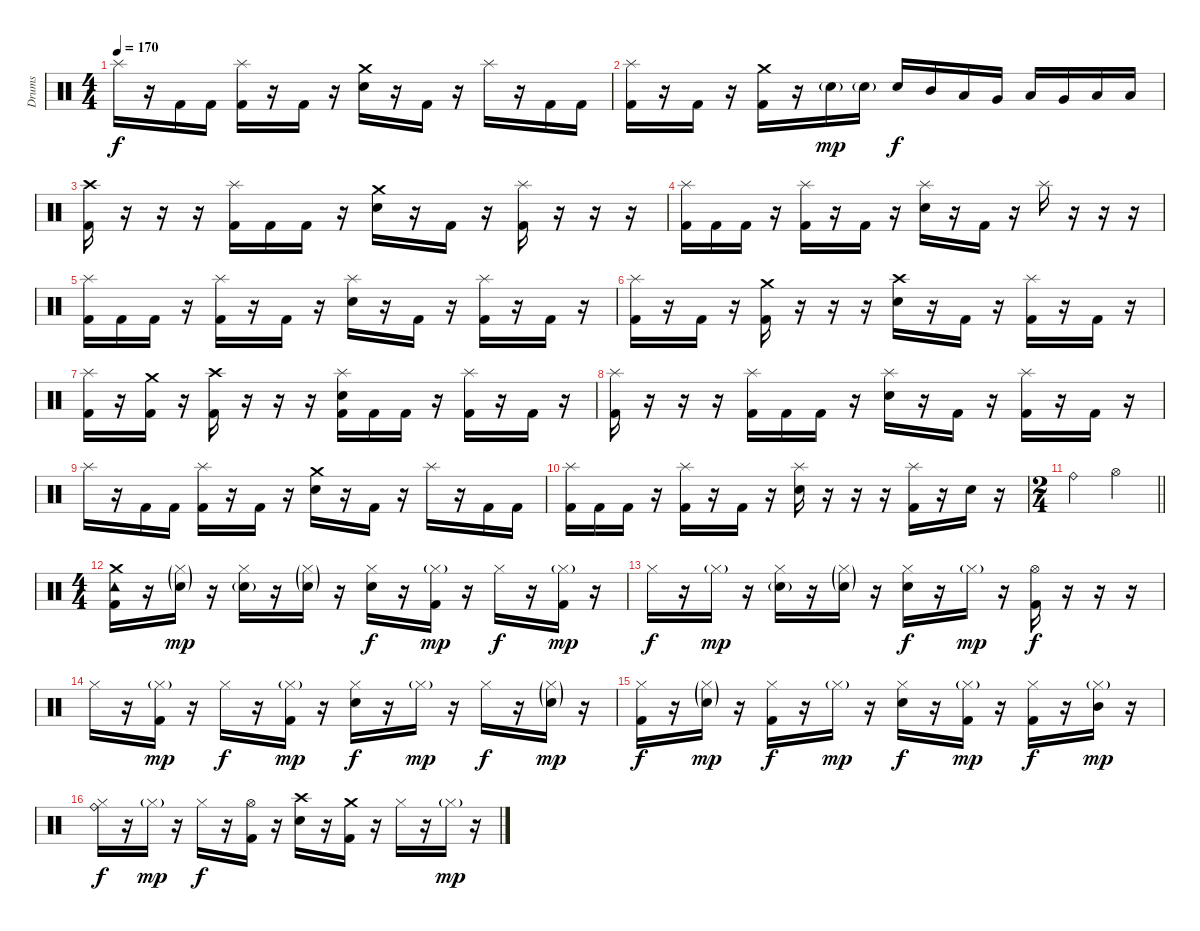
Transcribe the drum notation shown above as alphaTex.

\track ("Drums" "Drums") {instrument percussion}
\staff {score}
\articulation defaults
\ts (4 4)
\tempo 170
\clef neutral
\ks c "Splash (hit)".16{dy f}
r.16 "Kick (hit) 2".16 "Kick (hit) 2".16 ("Splash (hit)" "Kick (hit) 2").16 r.16 "Kick (hit) 2".16 r.16 ("Crash medium (hit)" "Electric Snare (hit)").16 r.16 "Kick (hit) 2".16 r.16 "Splash (hit)".16 r.16 "Kick (hit) 2".16 "Kick (hit) 2".16 |
("Splash (hit)" "Kick (hit) 2").16 r.16 "Kick (hit) 2".16 r.16 ("Crash medium (hit)" "Kick (hit) 2").16 r.16 "Electric Snare (hit)"{g}.16{dy mp} "Electric Snare (hit)"{g}.16 "Electric Snare (hit)".16{dy f} "Mid Tom (hit)".16 "Low Tom (hit)".16 "Very Low Tom (hit)".16 "Low Floor Tom (hit)".16 "Very Low Tom (hit)".16 "Low Floor Tom (hit)".16 "Low Floor Tom (hit)".16 |
("Crash high (hit)" "Kick (hit) 2").16 r.16 r.16 r.16 ("Splash (hit)" "Kick (hit) 2").16 "Kick (hit) 2".16 "Kick (hit) 2".16 r.16 ("Crash medium (hit)" "Electric Snare (hit)").16 r.16 "Kick (hit) 2".16 r.16 ("Splash (hit)" "Kick (hit) 2").16 r.16 r.16 r.16 |
("Splash (hit)" "Kick (hit) 2").16 "Kick (hit) 2".16 "Kick (hit) 2".16 r.16 ("Splash (hit)" "Kick (hit) 2").16 r.16 "Kick (hit) 2".16 r.16 ("Splash (hit)" "Electric Snare (hit)").16 r.16 "Kick (hit) 2".16 r.16 "Splash (hit)".16 r.16 r.16 r.16 |
("Splash (hit)" "Kick (hit) 2").16 "Kick (hit) 2".16 "Kick (hit) 2".16 r.16 ("Splash (hit)" "Kick (hit) 2").16 r.16 "Kick (hit) 2".16 r.16 ("Splash (hit)" "Electric Snare (hit)").16 r.16 "Kick (hit) 2".16 r.16 ("Splash (hit)" "Kick (hit) 2").16 r.16 "Kick (hit) 2".16 r.16 |
("Splash (hit)" "Kick (hit) 2").16 r.16 "Kick (hit) 2".16 r.16 ("Crash medium (hit)" "Kick (hit) 2").16 r.16 r.16 r.16 ("Crash high (hit)" "Electric Snare (hit)").16 r.16 "Kick (hit) 2".16 r.16 ("Splash (hit)" "Kick (hit) 2").16 r.16 "Kick (hit) 2".16 r.16 |
("Splash (hit)" "Kick (hit) 2").16 r.16 ("Crash medium (hit)" "Kick (hit) 2").16 r.16 ("Crash high (hit)" "Kick (hit) 2").16 r.16 r.16 r.16 ("Splash (hit)" "Electric Snare (hit)" "Kick (hit) 2").16 "Kick (hit) 2".16 "Kick (hit) 2".16 r.16 ("Splash (hit)" "Kick (hit) 2").16 r.16 "Kick (hit) 2".16 r.16 |
("Splash (hit)" "Kick (hit) 2").16 r.16 r.16 r.16 ("Splash (hit)" "Kick (hit) 2").16 "Kick (hit) 2".16 "Kick (hit) 2".16 r.16 ("Splash (hit)" "Electric Snare (hit)").16 r.16 "Kick (hit) 2".16 r.16 ("Splash (hit)" "Kick (hit) 2").16 r.16 "Kick (hit) 2".16 r.16 |
"Splash (hit)".16 r.16 "Kick (hit) 2".16 "Kick (hit) 2".16 ("Splash (hit)" "Kick (hit) 2").16 r.16 "Kick (hit) 2".16 r.16 ("Crash medium (hit)" "Electric Snare (hit)").16 r.16 "Kick (hit) 2".16 r.16 "Splash (hit)".16 r.16 "Kick (hit) 2".16 "Kick (hit) 2".16 |
("Splash (hit)" "Kick (hit) 2").16 "Kick (hit) 2".16 "Kick (hit) 2".16 r.16 ("Splash (hit)" "Kick (hit) 2").16 r.16 "Kick (hit) 2".16 r.16 ("Splash (hit)" "Electric Snare (hit)").16 r.16 r.16 r.16 ("Splash (hit)" "Kick (hit) 2").16 r.16 "Electric Snare (hit)".16 r.16 |
\ts (2 4)
\barLineRight lightlight "Ride (bell)".4 "Hi-Hat (open)".4
|
\ts (4 4)
\section ("" "")
("Crash medium (hit)" "Tambourine (hit)" "Kick (hit) 2").16 r.16 ("Hi-Hat (closed)"{g} "Electric Snare (hit)"{g}).16{dy mp} r.16 ("Hi-Hat (closed)" "Electric Snare (hit)"{g}).16 r.16 ("Hi-Hat (closed)"{g} "Electric Snare (hit)"{g}).16 r.16 ("Hi-Hat (closed)" "Electric Snare (hit)").16{dy f} r.16 ("Hi-Hat (closed)"{g} "Kick (hit) 2").16{dy mp} r.16 "Hi-Hat (closed)".16{dy f} r.16 ("Hi-Hat (closed)"{g} "Kick (hit) 2").16{dy mp} r.16 |
"Hi-Hat (closed)".16{dy f} r.16 "Hi-Hat (closed)"{g}.16{dy mp} r.16 ("Hi-Hat (closed)" "Electric Snare (hit)"{g}).16 r.16 ("Hi-Hat (closed)"{g} "Electric Snare (hit)"{g}).16 r.16 ("Hi-Hat (closed)" "Electric Snare (hit)").16{dy f} r.16 "Hi-Hat (closed)"{g}.16{dy mp} r.16 ("Hi-Hat (open)" "Kick (hit) 2").16{dy f} r.16 r.16 r.16 |
"Hi-Hat (closed)".16 r.16 ("Hi-Hat (closed)"{g} "Kick (hit) 2").16{dy mp} r.16 "Hi-Hat (closed)".16{dy f} r.16 ("Hi-Hat (closed)"{g} "Kick (hit) 2").16{dy mp} r.16 ("Hi-Hat (closed)" "Electric Snare (hit)").16{dy f} r.16 "Hi-Hat (closed)"{g}.16{dy mp} r.16 "Hi-Hat (closed)".16{dy f} r.16 ("Hi-Hat (closed)"{g} "Electric Snare (hit)"{g}).16{dy mp} r.16 |
("Hi-Hat (closed)" "Kick (hit) 2").16{dy f} r.16 ("Hi-Hat (closed)"{g} "Electric Snare (hit)"{g}).16{dy mp} r.16 ("Hi-Hat (closed)" "Kick (hit) 2").16{dy f} r.16 "Hi-Hat (closed)"{g}.16{dy mp} r.16 ("Hi-Hat (closed)" "Electric Snare (hit)").16{dy f} r.16 ("Hi-Hat (closed)"{g} "Kick (hit) 2").16{dy mp} r.16 ("Hi-Hat (closed)" "Kick (hit) 2").16{dy f} r.16 ("Mid Tom (hit)" "Hi-Hat (closed)"{g}).16{dy mp} r.16 |
("Ride (bell)" "Hi-Hat (closed)").16{dy f} r.16 "Hi-Hat (closed)"{g}.16{dy mp} r.16 "Hi-Hat (closed)".16{dy f} r.16 ("Hi-Hat (open)" "Kick (hit) 2").16 r.16 ("Crash high (hit)" "Electric Snare (hit)").16 r.16 ("Crash medium (hit)" "Kick (hit) 2").16 r.16 "Hi-Hat (closed)".16 r.16 "Hi-Hat (closed)"{g}.16{dy mp} r.16
